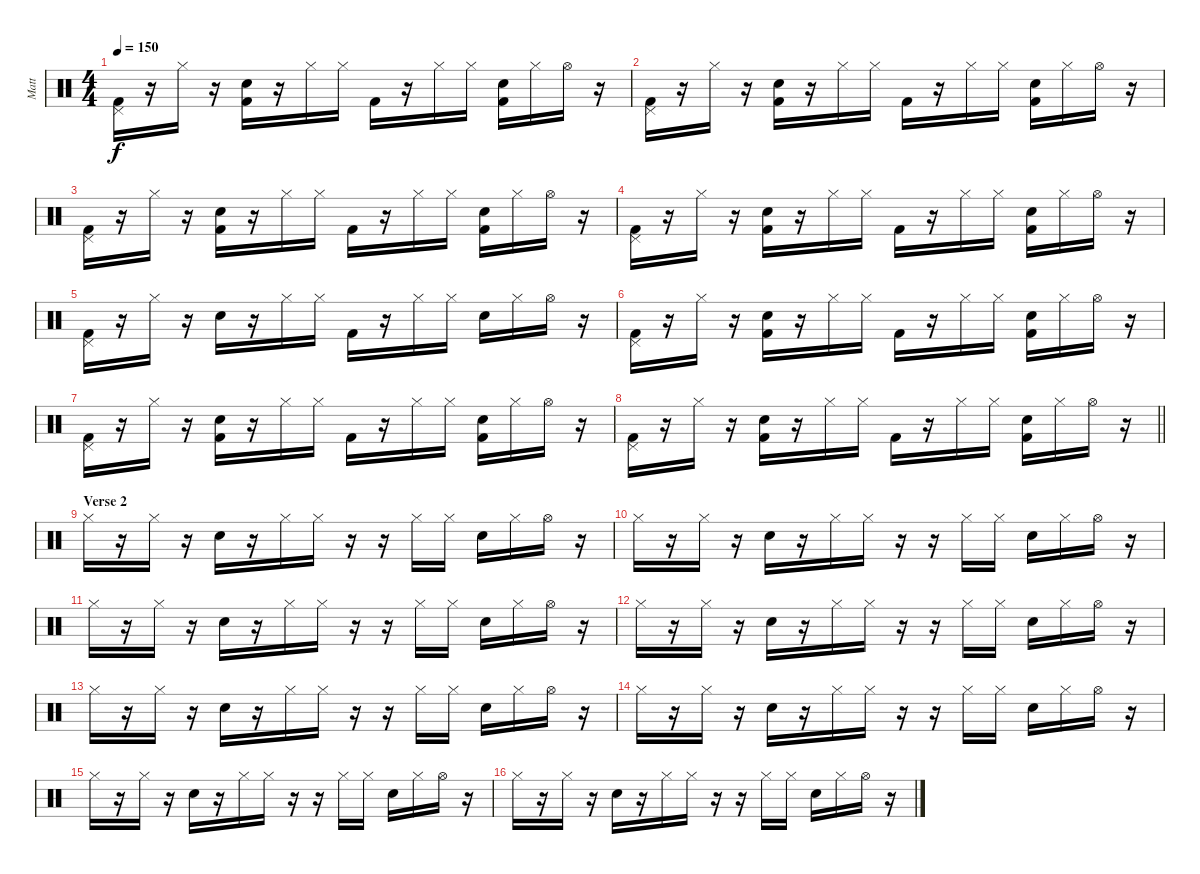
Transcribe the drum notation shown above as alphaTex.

\track ("Matt" "Matt") {instrument percussion}
\staff {score}
\articulation defaults
\ts (4 4)
\tempo 150
\clef neutral
\ks c
("Pedal Hi-Hat (hit)" "Kick (hit) 2").16{dy f} r.16 "Hi-Hat (closed)".16 r.16 ("Snare (hit) 2" "Kick (hit) 2").16 r.16 "Hi-Hat (closed)".16 "Hi-Hat (closed)".16 "Kick (hit) 2".16 r.16 "Hi-Hat (closed)".16 "Hi-Hat (closed)".16 ("Snare (hit) 2" "Kick (hit) 2").16 "Hi-Hat (closed)".16 "Hi-Hat (open)".16 r.16 |
("Pedal Hi-Hat (hit)" "Kick (hit) 2").16 r.16 "Hi-Hat (closed)".16 r.16 ("Snare (hit) 2" "Kick (hit) 2").16 r.16 "Hi-Hat (closed)".16 "Hi-Hat (closed)".16 "Kick (hit) 2".16 r.16 "Hi-Hat (closed)".16 "Hi-Hat (closed)".16 ("Snare (hit) 2" "Kick (hit) 2").16 "Hi-Hat (closed)".16 "Hi-Hat (open)".16 r.16 |
("Pedal Hi-Hat (hit)" "Kick (hit) 2").16 r.16 "Hi-Hat (closed)".16 r.16 ("Snare (hit) 2" "Kick (hit) 2").16 r.16 "Hi-Hat (closed)".16 "Hi-Hat (closed)".16 "Kick (hit) 2".16 r.16 "Hi-Hat (closed)".16 "Hi-Hat (closed)".16 ("Snare (hit) 2" "Kick (hit) 2").16 "Hi-Hat (closed)".16 "Hi-Hat (open)".16 r.16 |
("Pedal Hi-Hat (hit)" "Kick (hit) 2").16 r.16 "Hi-Hat (closed)".16 r.16 ("Snare (hit) 2" "Kick (hit) 2").16 r.16 "Hi-Hat (closed)".16 "Hi-Hat (closed)".16 "Kick (hit) 2".16 r.16 "Hi-Hat (closed)".16 "Hi-Hat (closed)".16 ("Snare (hit) 2" "Kick (hit) 2").16 "Hi-Hat (closed)".16 "Hi-Hat (open)".16 r.16 |
("Pedal Hi-Hat (hit)" "Kick (hit) 2").16 r.16 "Hi-Hat (closed)".16 r.16 "Snare (hit) 2".16 r.16 "Hi-Hat (closed)".16 "Hi-Hat (closed)".16 "Kick (hit) 2".16 r.16 "Hi-Hat (closed)".16 "Hi-Hat (closed)".16 "Snare (hit) 2".16 "Hi-Hat (closed)".16 "Hi-Hat (open)".16 r.16 |
("Pedal Hi-Hat (hit)" "Kick (hit) 2").16 r.16 "Hi-Hat (closed)".16 r.16 ("Snare (hit) 2" "Kick (hit) 2").16 r.16 "Hi-Hat (closed)".16 "Hi-Hat (closed)".16 "Kick (hit) 2".16 r.16 "Hi-Hat (closed)".16 "Hi-Hat (closed)".16 ("Snare (hit) 2" "Kick (hit) 2").16 "Hi-Hat (closed)".16 "Hi-Hat (open)".16 r.16 |
("Pedal Hi-Hat (hit)" "Kick (hit) 2").16 r.16 "Hi-Hat (closed)".16 r.16 ("Snare (hit) 2" "Kick (hit) 2").16 r.16 "Hi-Hat (closed)".16 "Hi-Hat (closed)".16 "Kick (hit) 2".16 r.16 "Hi-Hat (closed)".16 "Hi-Hat (closed)".16 ("Snare (hit) 2" "Kick (hit) 2").16 "Hi-Hat (closed)".16 "Hi-Hat (open)".16 r.16 |
\barLineRight lightlight
("Pedal Hi-Hat (hit)" "Kick (hit) 2").16 r.16 "Hi-Hat (closed)".16 r.16 ("Snare (hit) 2" "Kick (hit) 2").16 r.16 "Hi-Hat (closed)".16 "Hi-Hat (closed)".16 "Kick (hit) 2".16 r.16 "Hi-Hat (closed)".16 "Hi-Hat (closed)".16 ("Snare (hit) 2" "Kick (hit) 2").16 "Hi-Hat (closed)".16 "Hi-Hat (open)".16 r.16 |
\section ("" "Verse 2")
"Hi-Hat (closed)".16 r.16 "Hi-Hat (closed)".16 r.16 "Snare (hit) 2".16 r.16 "Hi-Hat (closed)".16 "Hi-Hat (closed)".16 r.16 r.16 "Hi-Hat (closed)".16 "Hi-Hat (closed)".16 "Snare (hit) 2".16 "Hi-Hat (closed)".16 "Hi-Hat (open)".16 r.16 |
"Hi-Hat (closed)".16 r.16 "Hi-Hat (closed)".16 r.16 "Snare (hit) 2".16 r.16 "Hi-Hat (closed)".16 "Hi-Hat (closed)".16 r.16 r.16 "Hi-Hat (closed)".16 "Hi-Hat (closed)".16 "Snare (hit) 2".16 "Hi-Hat (closed)".16 "Hi-Hat (open)".16 r.16 |
"Hi-Hat (closed)".16 r.16 "Hi-Hat (closed)".16 r.16 "Snare (hit) 2".16 r.16 "Hi-Hat (closed)".16 "Hi-Hat (closed)".16 r.16 r.16 "Hi-Hat (closed)".16 "Hi-Hat (closed)".16 "Snare (hit) 2".16 "Hi-Hat (closed)".16 "Hi-Hat (open)".16 r.16 |
"Hi-Hat (closed)".16 r.16 "Hi-Hat (closed)".16 r.16 "Snare (hit) 2".16 r.16 "Hi-Hat (closed)".16 "Hi-Hat (closed)".16 r.16 r.16 "Hi-Hat (closed)".16 "Hi-Hat (closed)".16 "Snare (hit) 2".16 "Hi-Hat (closed)".16 "Hi-Hat (open)".16 r.16 |
"Hi-Hat (closed)".16 r.16 "Hi-Hat (closed)".16 r.16 "Snare (hit) 2".16 r.16 "Hi-Hat (closed)".16 "Hi-Hat (closed)".16 r.16 r.16 "Hi-Hat (closed)".16 "Hi-Hat (closed)".16 "Snare (hit) 2".16 "Hi-Hat (closed)".16 "Hi-Hat (open)".16 r.16 |
"Hi-Hat (closed)".16 r.16 "Hi-Hat (closed)".16 r.16 "Snare (hit) 2".16 r.16 "Hi-Hat (closed)".16 "Hi-Hat (closed)".16 r.16 r.16 "Hi-Hat (closed)".16 "Hi-Hat (closed)".16 "Snare (hit) 2".16 "Hi-Hat (closed)".16 "Hi-Hat (open)".16 r.16 |
"Hi-Hat (closed)".16 r.16 "Hi-Hat (closed)".16 r.16 "Snare (hit) 2".16 r.16 "Hi-Hat (closed)".16 "Hi-Hat (closed)".16 r.16 r.16 "Hi-Hat (closed)".16 "Hi-Hat (closed)".16 "Snare (hit) 2".16 "Hi-Hat (closed)".16 "Hi-Hat (open)".16 r.16 |
"Hi-Hat (closed)".16 r.16 "Hi-Hat (closed)".16 r.16 "Snare (hit) 2".16 r.16 "Hi-Hat (closed)".16 "Hi-Hat (closed)".16 r.16 r.16 "Hi-Hat (closed)".16 "Hi-Hat (closed)".16 "Snare (hit) 2".16 "Hi-Hat (closed)".16 "Hi-Hat (open)".16 r.16
